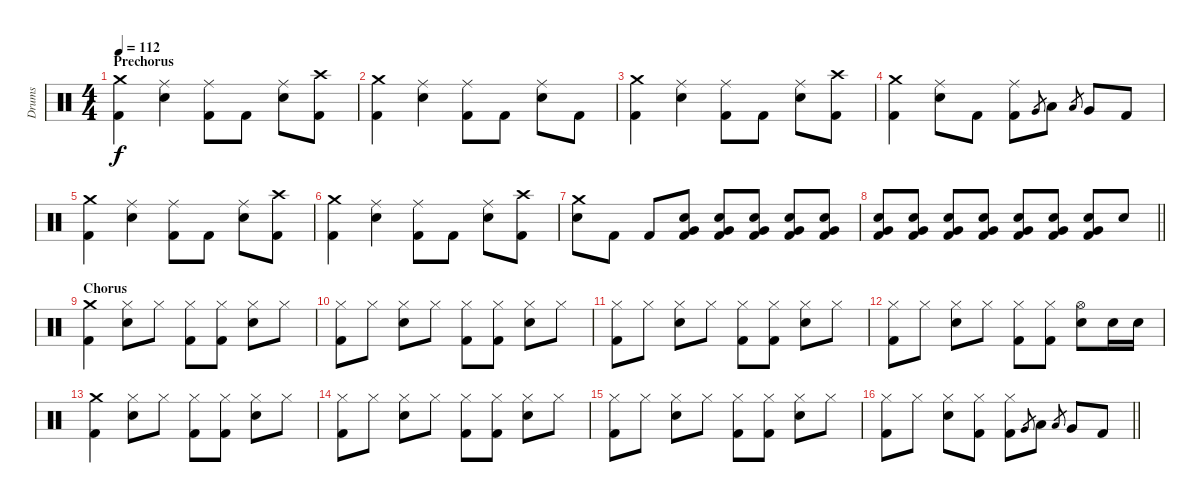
\track ("Drums" "Drums") {instrument percussion}
\staff {score}
\articulation defaults
\ts (4 4)
\section ("" "Prechorus")
\tempo 112
\clef neutral
\ks c
("Crash medium (hit)" "Kick (hit) 2").4{dy f} ("Ride (middle)" "Snare (hit) 2").4 ("Ride (middle)" "Kick (hit) 2").8 "Kick (hit) 2".8 ("Ride (middle)" "Snare (hit) 2").8 ("Crash high (hit)" "Kick (hit) 2").8 |
("Crash medium (hit)" "Kick (hit) 2").4 ("Ride (middle)" "Snare (hit) 2").4 ("Ride (middle)" "Kick (hit) 2").8 "Kick (hit) 2".8 ("Ride (middle)" "Snare (hit) 2").8 "Kick (hit) 2".8 |
("Crash medium (hit)" "Kick (hit) 2").4 ("Ride (middle)" "Snare (hit) 2").4 ("Ride (middle)" "Kick (hit) 2").8 "Kick (hit) 2".8 ("Ride (middle)" "Snare (hit) 2").8 ("Crash high (hit)" "Kick (hit) 2").8 |
("Crash medium (hit)" "Kick (hit) 2").4 ("Ride (middle)" "Snare (hit) 2").8 "Kick (hit) 2".8 ("Ride (middle)" "Kick (hit) 2").8 "Very Low Tom (hit)".8{gr} "Low Tom (hit)".8 "Low Floor Tom (hit)".8{gr} "Very Low Tom (hit)".8 "Kick (hit) 2".8 |
("Crash medium (hit)" "Kick (hit) 2").4 ("Ride (middle)" "Snare (hit) 2").4 ("Ride (middle)" "Kick (hit) 2").8 "Kick (hit) 2".8 ("Ride (middle)" "Snare (hit) 2").8 ("Crash high (hit)" "Kick (hit) 2").8 |
("Crash medium (hit)" "Kick (hit) 2").4 ("Ride (middle)" "Snare (hit) 2").4 ("Ride (middle)" "Kick (hit) 2").8 "Kick (hit) 2".8 ("Ride (middle)" "Snare (hit) 2").8 ("Crash high (hit)" "Kick (hit) 2").8 |
("Crash medium (hit)" "Snare (hit) 2").8 "Kick (hit) 2".8 "Kick (hit) 2".8 ("Very Low Tom (hit)" "Snare (hit) 2" "Kick (hit) 2").8 ("Very Low Tom (hit)" "Snare (hit) 2" "Kick (hit) 2").8 ("Very Low Tom (hit)" "Snare (hit) 2" "Kick (hit) 2").8 ("Very Low Tom (hit)" "Snare (hit) 2" "Kick (hit) 2").8 ("Very Low Tom (hit)" "Snare (hit) 2" "Kick (hit) 2").8 |
\barLineRight lightlight
("Very Low Tom (hit)" "Snare (hit) 2" "Kick (hit) 2").8 ("Very Low Tom (hit)" "Snare (hit) 2" "Kick (hit) 2").8 ("Very Low Tom (hit)" "Snare (hit) 2" "Kick (hit) 2").8 ("Very Low Tom (hit)" "Snare (hit) 2" "Kick (hit) 2").8 ("Very Low Tom (hit)" "Snare (hit) 2" "Kick (hit) 2").8 ("Very Low Tom (hit)" "Snare (hit) 2" "Kick (hit) 2").8 ("Very Low Tom (hit)" "Snare (hit) 2" "Kick (hit) 2").8 "Snare (hit) 2".8 |
\section ("" "Chorus")
("Crash medium (hit)" "Kick (hit) 2").4 ("Hi-Hat (closed)" "Snare (hit) 2").8 "Hi-Hat (closed)".8 ("Hi-Hat (closed)" "Kick (hit) 2").8 ("Hi-Hat (closed)" "Kick (hit) 2").8 ("Hi-Hat (closed)" "Snare (hit) 2").8 "Hi-Hat (closed)".8 |
("Hi-Hat (closed)" "Kick (hit) 2").8 "Hi-Hat (closed)".8 ("Hi-Hat (closed)" "Snare (hit) 2").8 "Hi-Hat (closed)".8 ("Hi-Hat (closed)" "Kick (hit) 2").8 ("Hi-Hat (closed)" "Kick (hit) 2").8 ("Hi-Hat (closed)" "Snare (hit) 2").8 "Hi-Hat (closed)".8 |
("Hi-Hat (closed)" "Kick (hit) 2").8 "Hi-Hat (closed)".8 ("Hi-Hat (closed)" "Snare (hit) 2").8 "Hi-Hat (closed)".8 ("Hi-Hat (closed)" "Kick (hit) 2").8 ("Hi-Hat (closed)" "Kick (hit) 2").8 ("Hi-Hat (closed)" "Snare (hit) 2").8 "Hi-Hat (closed)".8 |
("Hi-Hat (closed)" "Kick (hit) 2").8 "Hi-Hat (closed)".8 ("Hi-Hat (closed)" "Snare (hit) 2").8 "Hi-Hat (closed)".8 ("Hi-Hat (closed)" "Kick (hit) 2").8 ("Hi-Hat (closed)" "Kick (hit) 2").8 ("Hi-Hat (open)" "Snare (hit) 2").8 "Snare (hit) 2".16 "Snare (hit) 2".16 |
("Crash medium (hit)" "Kick (hit) 2").4 ("Hi-Hat (closed)" "Snare (hit) 2").8 "Hi-Hat (closed)".8 ("Hi-Hat (closed)" "Kick (hit) 2").8 ("Hi-Hat (closed)" "Kick (hit) 2").8 ("Hi-Hat (closed)" "Snare (hit) 2").8 "Hi-Hat (closed)".8 |
("Hi-Hat (closed)" "Kick (hit) 2").8 "Hi-Hat (closed)".8 ("Hi-Hat (closed)" "Snare (hit) 2").8 "Hi-Hat (closed)".8 ("Hi-Hat (closed)" "Kick (hit) 2").8 ("Hi-Hat (closed)" "Kick (hit) 2").8 ("Hi-Hat (closed)" "Snare (hit) 2").8 "Hi-Hat (closed)".8 |
("Hi-Hat (closed)" "Kick (hit) 2").8 "Hi-Hat (closed)".8 ("Hi-Hat (closed)" "Snare (hit) 2").8 "Hi-Hat (closed)".8 ("Hi-Hat (closed)" "Kick (hit) 2").8 ("Hi-Hat (closed)" "Kick (hit) 2").8 ("Hi-Hat (closed)" "Snare (hit) 2").8 "Hi-Hat (closed)".8 |
\barLineRight lightlight
("Hi-Hat (closed)" "Kick (hit) 2").8 "Hi-Hat (closed)".8 ("Hi-Hat (closed)" "Snare (hit) 2").8 ("Hi-Hat (closed)" "Kick (hit) 2").8 ("Hi-Hat (closed)" "Kick (hit) 2").8 "Very Low Tom (hit)".8{gr} "Low Tom (hit)".8 "Low Floor Tom (hit)".8{gr} "Very Low Tom (hit)".8 "Kick (hit) 2".8
